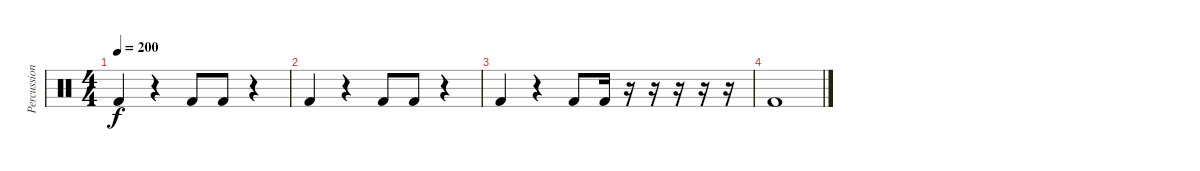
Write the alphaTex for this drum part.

\track ("Percussions 2" "Percussion") {instrument percussion}
\staff {score}
\articulation defaults
\ts (4 4)
\tempo 200
\clef neutral
\ks c "Kick (hit) 2".4{dy f}
r.4 "Kick (hit) 2".8 "Kick (hit) 2".8 r.4 |
"Kick (hit) 2".4 r.4 "Kick (hit) 2".8 "Kick (hit) 2".8 r.4 |
"Kick (hit) 2".4 r.4 "Kick (hit) 2".8 "Kick (hit) 2".16 r.16 r.16 r.16 r.16 r.16 |
"Kick (hit) 2".1
